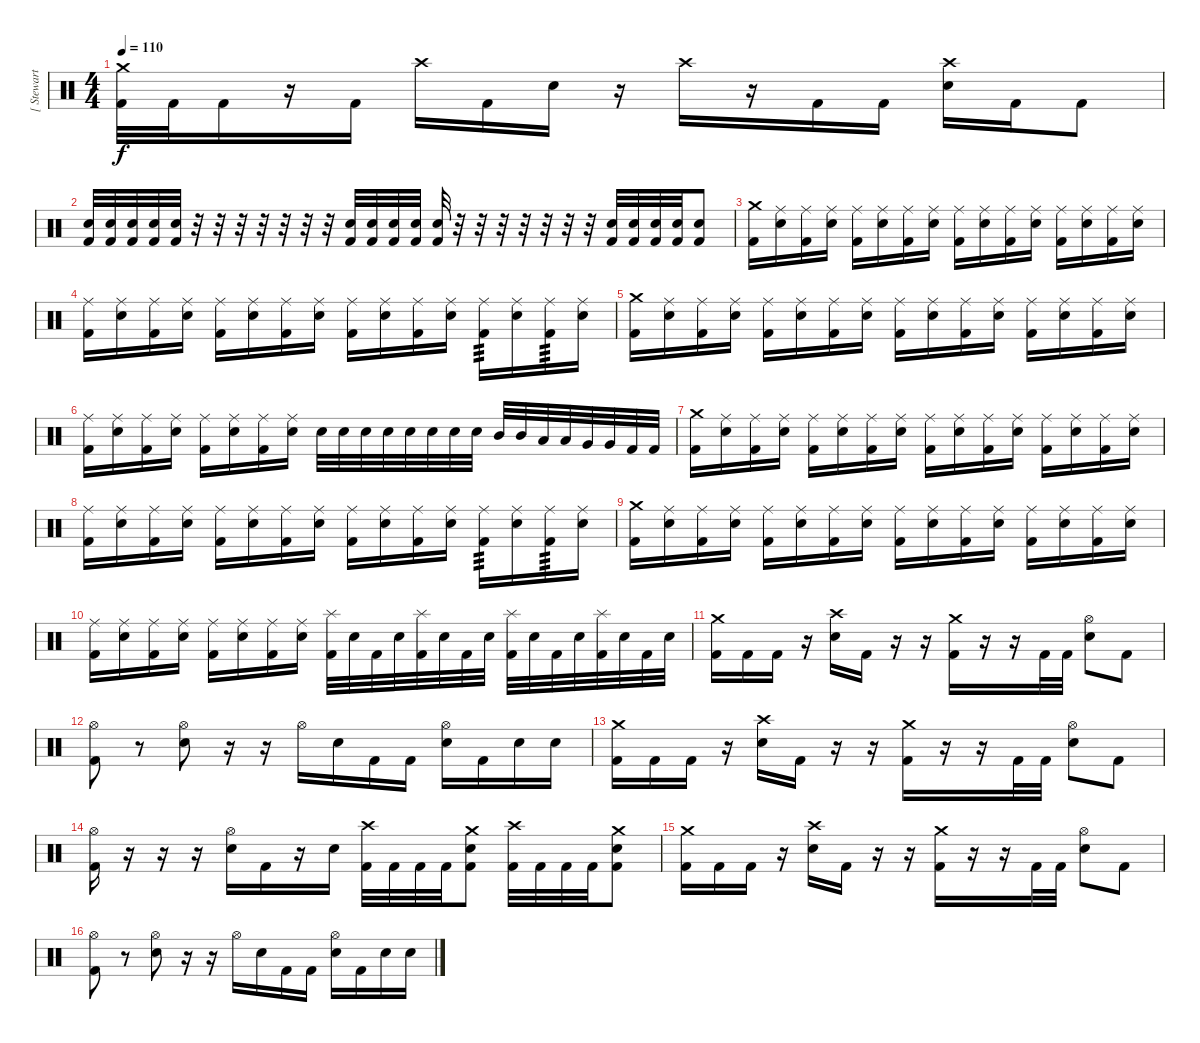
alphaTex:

\track ("[ Stewart ]" "[ Stewart ") {instrument percussion}
\staff {score}
\articulation defaults
\ts (4 4)
\tempo 110
\clef neutral
\ks c
("Kick (hit) 2" "Crash medium (hit)").32{dy f} "Kick (hit) 2".32 "Kick (hit) 2".16 r.16 "Kick (hit) 2".16 "Crash high (hit)".16 "Kick (hit) 2".16 "Electric Snare (hit)".16 r.16 "Crash high (hit)".16 r.16 "Kick (hit) 2".16 "Kick (hit) 2".16 ("Electric Snare (hit)" "Crash high (hit)").16 "Kick (hit) 2".16 "Kick (hit) 2".8 |
("Kick (hit) 2" "Electric Snare (hit)").32 ("Kick (hit) 2" "Electric Snare (hit)").32 ("Kick (hit) 2" "Electric Snare (hit)").32 ("Kick (hit) 2" "Electric Snare (hit)").32 ("Kick (hit) 2" "Electric Snare (hit)").32 r.32 r.32 r.32 r.32 r.32 r.32 r.32 ("Kick (hit) 2" "Electric Snare (hit)").32 ("Kick (hit) 2" "Electric Snare (hit)").32 ("Kick (hit) 2" "Electric Snare (hit)").32 ("Kick (hit) 2" "Electric Snare (hit)").32 ("Kick (hit) 2" "Electric Snare (hit)").32 r.32 r.32 r.32 r.32 r.32 r.32 r.32 ("Kick (hit) 2" "Electric Snare (hit)").32 ("Kick (hit) 2" "Electric Snare (hit)").32 ("Kick (hit) 2" "Electric Snare (hit)").32 ("Kick (hit) 2" "Electric Snare (hit)").32 ("Kick (hit) 2" "Electric Snare (hit)").8 |
("Kick (hit) 2" "Crash medium (hit)").16 ("Electric Snare (hit)" "Ride (middle)").16 ("Kick (hit) 2" "Ride (middle)").16 ("Electric Snare (hit)" "Ride (middle)").16 ("Kick (hit) 2" "Ride (middle)").16 ("Electric Snare (hit)" "Ride (middle)").16 ("Kick (hit) 2" "Ride (middle)").16 ("Electric Snare (hit)" "Ride (middle)").16 ("Kick (hit) 2" "Ride (middle)").16 ("Electric Snare (hit)" "Ride (middle)").16 ("Kick (hit) 2" "Ride (middle)").16 ("Electric Snare (hit)" "Ride (middle)").16 ("Kick (hit) 2" "Ride (middle)").16 ("Electric Snare (hit)" "Ride (middle)").16 ("Kick (hit) 2" "Ride (middle)").16 ("Electric Snare (hit)" "Ride (middle)").16 |
("Kick (hit) 2" "Ride (middle)").16 ("Electric Snare (hit)" "Ride (middle)").16 ("Kick (hit) 2" "Ride (middle)").16 ("Electric Snare (hit)" "Ride (middle)").16 ("Kick (hit) 2" "Ride (middle)").16 ("Electric Snare (hit)" "Ride (middle)").16 ("Kick (hit) 2" "Ride (middle)").16 ("Electric Snare (hit)" "Ride (middle)").16 ("Kick (hit) 2" "Ride (middle)").16 ("Electric Snare (hit)" "Ride (middle)").16 ("Kick (hit) 2" "Ride (middle)").16 ("Electric Snare (hit)" "Ride (middle)").16 ("Kick (hit) 2" "Ride (middle)").16{tp 3} ("Electric Snare (hit)" "Ride (middle)").16 ("Kick (hit) 2" "Ride (middle)").16{tp 3} ("Electric Snare (hit)" "Ride (middle)").16 |
("Kick (hit) 2" "Crash medium (hit)").16 ("Electric Snare (hit)" "Ride (middle)").16 ("Kick (hit) 2" "Ride (middle)").16 ("Electric Snare (hit)" "Ride (middle)").16 ("Kick (hit) 2" "Ride (middle)").16 ("Electric Snare (hit)" "Ride (middle)").16 ("Kick (hit) 2" "Ride (middle)").16 ("Electric Snare (hit)" "Ride (middle)").16 ("Kick (hit) 2" "Ride (middle)").16 ("Electric Snare (hit)" "Ride (middle)").16 ("Kick (hit) 2" "Ride (middle)").16 ("Electric Snare (hit)" "Ride (middle)").16 ("Kick (hit) 2" "Ride (middle)").16 ("Electric Snare (hit)" "Ride (middle)").16 ("Kick (hit) 2" "Ride (middle)").16 ("Electric Snare (hit)" "Ride (middle)").16 |
("Kick (hit) 2" "Ride (middle)").16 ("Electric Snare (hit)" "Ride (middle)").16 ("Kick (hit) 2" "Ride (middle)").16 ("Electric Snare (hit)" "Ride (middle)").16 ("Kick (hit) 2" "Ride (middle)").16 ("Electric Snare (hit)" "Ride (middle)").16 ("Kick (hit) 2" "Ride (middle)").16 ("Electric Snare (hit)" "Ride (middle)").16 "Electric Snare (hit)".32 "Electric Snare (hit)".32 "Electric Snare (hit)".32 "Electric Snare (hit)".32 "Electric Snare (hit)".32 "Electric Snare (hit)".32 "Electric Snare (hit)".32 "Electric Snare (hit)".32 "Mid Tom (hit)".32 "Mid Tom (hit)".32 "Low Tom (hit)".32 "Low Tom (hit)".32 "Very Low Tom (hit)".32 "Very Low Tom (hit)".32 "Kick (hit) 2".32 "Kick (hit) 2".32 |
("Kick (hit) 2" "Crash medium (hit)").16 ("Electric Snare (hit)" "Ride (middle)").16 ("Kick (hit) 2" "Ride (middle)").16 ("Electric Snare (hit)" "Ride (middle)").16 ("Kick (hit) 2" "Ride (middle)").16 ("Electric Snare (hit)" "Ride (middle)").16 ("Kick (hit) 2" "Ride (middle)").16 ("Electric Snare (hit)" "Ride (middle)").16 ("Kick (hit) 2" "Ride (middle)").16 ("Electric Snare (hit)" "Ride (middle)").16 ("Kick (hit) 2" "Ride (middle)").16 ("Electric Snare (hit)" "Ride (middle)").16 ("Kick (hit) 2" "Ride (middle)").16 ("Electric Snare (hit)" "Ride (middle)").16 ("Kick (hit) 2" "Ride (middle)").16 ("Electric Snare (hit)" "Ride (middle)").16 |
("Kick (hit) 2" "Ride (middle)").16 ("Electric Snare (hit)" "Ride (middle)").16 ("Kick (hit) 2" "Ride (middle)").16 ("Electric Snare (hit)" "Ride (middle)").16 ("Kick (hit) 2" "Ride (middle)").16 ("Electric Snare (hit)" "Ride (middle)").16 ("Kick (hit) 2" "Ride (middle)").16 ("Electric Snare (hit)" "Ride (middle)").16 ("Kick (hit) 2" "Ride (middle)").16 ("Electric Snare (hit)" "Ride (middle)").16 ("Kick (hit) 2" "Ride (middle)").16 ("Electric Snare (hit)" "Ride (middle)").16 ("Kick (hit) 2" "Ride (middle)").16{tp 3} ("Electric Snare (hit)" "Ride (middle)").16 ("Kick (hit) 2" "Ride (middle)").16{tp 3} ("Electric Snare (hit)" "Ride (middle)").16 |
("Kick (hit) 2" "Crash medium (hit)").16 ("Electric Snare (hit)" "Ride (middle)").16 ("Kick (hit) 2" "Ride (middle)").16 ("Electric Snare (hit)" "Ride (middle)").16 ("Kick (hit) 2" "Ride (middle)").16 ("Electric Snare (hit)" "Ride (middle)").16 ("Kick (hit) 2" "Ride (middle)").16 ("Electric Snare (hit)" "Ride (middle)").16 ("Kick (hit) 2" "Ride (middle)").16 ("Electric Snare (hit)" "Ride (middle)").16 ("Kick (hit) 2" "Ride (middle)").16 ("Electric Snare (hit)" "Ride (middle)").16 ("Kick (hit) 2" "Ride (middle)").16 ("Electric Snare (hit)" "Ride (middle)").16 ("Kick (hit) 2" "Ride (middle)").16 ("Electric Snare (hit)" "Ride (middle)").16 |
("Kick (hit) 2" "Ride (middle)").16 ("Electric Snare (hit)" "Ride (middle)").16 ("Kick (hit) 2" "Ride (middle)").16 ("Electric Snare (hit)" "Ride (middle)").16 ("Kick (hit) 2" "Ride (middle)").16 ("Electric Snare (hit)" "Ride (middle)").16 ("Kick (hit) 2" "Ride (middle)").16 ("Electric Snare (hit)" "Ride (middle)").16 ("Kick (hit) 2" "Splash (hit)").32 "Electric Snare (hit)".32 "Kick (hit) 2".32 "Electric Snare (hit)".32 ("Kick (hit) 2" "Splash (hit)").32 "Electric Snare (hit)".32 "Kick (hit) 2".32 "Electric Snare (hit)".32 ("Kick (hit) 2" "Splash (hit)").32 "Electric Snare (hit)".32 "Kick (hit) 2".32 "Electric Snare (hit)".32 ("Kick (hit) 2" "Splash (hit)").32 "Electric Snare (hit)".32 "Kick (hit) 2".32 "Electric Snare (hit)".32 |
("Kick (hit) 2" "Crash medium (hit)").16 "Kick (hit) 2".16 "Kick (hit) 2".16 r.16 ("Electric Snare (hit)" "Crash high (hit)").16 "Kick (hit) 2".16 r.16 r.16 ("Kick (hit) 2" "Crash medium (hit)").16 r.16 r.16 "Kick (hit) 2".32 "Kick (hit) 2".32 ("Electric Snare (hit)" "Hi-Hat (open)").8 "Kick (hit) 2".8 |
("Kick (hit) 2" "Hi-Hat (open)").8 r.8 ("Electric Snare (hit)" "Hi-Hat (open)").8 r.16 r.16 "Hi-Hat (open)".16 "Electric Snare (hit)".16 "Kick (hit) 2".16 "Kick (hit) 2".16 ("Electric Snare (hit)" "Hi-Hat (open)").16 "Kick (hit) 2".16 "Electric Snare (hit)".16 "Electric Snare (hit)".16 |
("Kick (hit) 2" "Crash medium (hit)").16 "Kick (hit) 2".16 "Kick (hit) 2".16 r.16 ("Electric Snare (hit)" "Crash high (hit)").16 "Kick (hit) 2".16 r.16 r.16 ("Kick (hit) 2" "Crash medium (hit)").16 r.16 r.16 "Kick (hit) 2".32 "Kick (hit) 2".32 ("Electric Snare (hit)" "Hi-Hat (open)").8 "Kick (hit) 2".8 |
("Kick (hit) 2" "Hi-Hat (open)").16 r.16 r.16 r.16 ("Electric Snare (hit)" "Hi-Hat (open)").16 "Kick (hit) 2".16 r.16 "Electric Snare (hit)".16 ("Kick (hit) 2" "Crash high (hit)").32 "Kick (hit) 2".32 "Kick (hit) 2".32 "Kick (hit) 2".32 ("Kick (hit) 2" "Electric Snare (hit)" "Crash medium (hit)").8 ("Kick (hit) 2" "Crash high (hit)").32 "Kick (hit) 2".32 "Kick (hit) 2".32 "Kick (hit) 2".32 ("Kick (hit) 2" "Electric Snare (hit)" "Crash medium (hit)").8 |
("Kick (hit) 2" "Crash medium (hit)").16 "Kick (hit) 2".16 "Kick (hit) 2".16 r.16 ("Electric Snare (hit)" "Crash high (hit)").16 "Kick (hit) 2".16 r.16 r.16 ("Kick (hit) 2" "Crash medium (hit)").16 r.16 r.16 "Kick (hit) 2".32 "Kick (hit) 2".32 ("Electric Snare (hit)" "Hi-Hat (open)").8 "Kick (hit) 2".8 |
("Kick (hit) 2" "Hi-Hat (open)").8 r.8 ("Electric Snare (hit)" "Hi-Hat (open)").8 r.16 r.16 "Hi-Hat (open)".16 "Electric Snare (hit)".16 "Kick (hit) 2".16 "Kick (hit) 2".16 ("Electric Snare (hit)" "Hi-Hat (open)").16 "Kick (hit) 2".16 "Electric Snare (hit)".16 "Electric Snare (hit)".16
